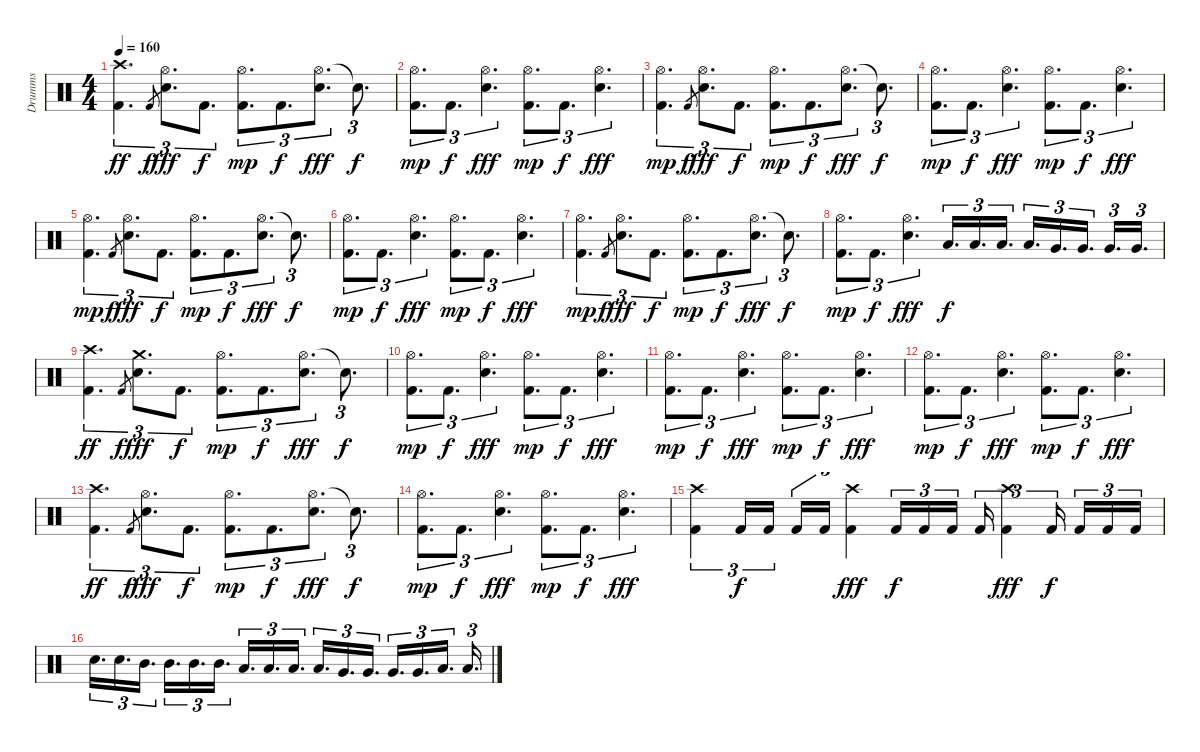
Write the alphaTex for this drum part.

\track ("Drumms" "Drumms") {instrument percussion}
\staff {score}
\articulation defaults
\ts (4 4)
\section ("" "")
\tempo 160
\clef neutral
\ks c
("Crash high (hit)" "Kick (hit) 2").4{d tu (3 2) dy ff} "Kick (hit) 2".8{gr dy f} ("Hi-Hat (open)" "Electric Snare (hit)").8{d tu (3 2) dy fff} "Kick (hit) 2".8{d tu (3 2) dy f} ("Hi-Hat (open)" "Kick (hit) 2").8{d tu (3 2) dy mp} "Kick (hit) 2".8{d tu (3 2) dy f} ("Hi-Hat (open)" "Electric Snare (hit)").8{d tu (3 2) dy fff} "Snare (hit)"{t}.8{d tu (3 2) dy f} |
("Hi-Hat (open)" "Kick (hit) 2").8{d tu (3 2) dy mp} "Kick (hit) 2".8{d tu (3 2) dy f} ("Hi-Hat (open)" "Electric Snare (hit)").4{d tu (3 2) dy fff} ("Hi-Hat (open)" "Kick (hit) 2").8{d tu (3 2) dy mp} "Kick (hit) 2".8{d tu (3 2) dy f} ("Hi-Hat (open)" "Electric Snare (hit)").4{d tu (3 2) dy fff} |
("Hi-Hat (open)" "Kick (hit) 2").4{d tu (3 2) dy mp} "Kick (hit) 2".8{gr dy f} ("Hi-Hat (open)" "Electric Snare (hit)").8{d tu (3 2) dy fff} "Kick (hit) 2".8{d tu (3 2) dy f} ("Hi-Hat (open)" "Kick (hit) 2").8{d tu (3 2) dy mp} "Kick (hit) 2".8{d tu (3 2) dy f} ("Hi-Hat (open)" "Electric Snare (hit)").8{d tu (3 2) dy fff} "Snare (hit)"{t}.8{d tu (3 2) dy f} |
("Hi-Hat (open)" "Kick (hit) 2").8{d tu (3 2) dy mp} "Kick (hit) 2".8{d tu (3 2) dy f} ("Hi-Hat (open)" "Electric Snare (hit)").4{d tu (3 2) dy fff} ("Hi-Hat (open)" "Kick (hit) 2").8{d tu (3 2) dy mp} "Kick (hit) 2".8{d tu (3 2) dy f} ("Hi-Hat (open)" "Electric Snare (hit)").4{d tu (3 2) dy fff} |
("Hi-Hat (open)" "Kick (hit) 2").4{d tu (3 2) dy mp} "Kick (hit) 2".8{gr dy f} ("Hi-Hat (open)" "Electric Snare (hit)").8{d tu (3 2) dy fff} "Kick (hit) 2".8{d tu (3 2) dy f} ("Hi-Hat (open)" "Kick (hit) 2").8{d tu (3 2) dy mp} "Kick (hit) 2".8{d tu (3 2) dy f} ("Hi-Hat (open)" "Electric Snare (hit)").8{d tu (3 2) dy fff} "Snare (hit)"{t}.8{d tu (3 2) dy f} |
("Hi-Hat (open)" "Kick (hit) 2").8{d tu (3 2) dy mp} "Kick (hit) 2".8{d tu (3 2) dy f} ("Hi-Hat (open)" "Electric Snare (hit)").4{d tu (3 2) dy fff} ("Hi-Hat (open)" "Kick (hit) 2").8{d tu (3 2) dy mp} "Kick (hit) 2".8{d tu (3 2) dy f} ("Hi-Hat (open)" "Electric Snare (hit)").4{d tu (3 2) dy fff} |
("Hi-Hat (open)" "Kick (hit) 2").4{d tu (3 2) dy mp} "Kick (hit) 2".8{gr dy f} ("Hi-Hat (open)" "Electric Snare (hit)").8{d tu (3 2) dy fff} "Kick (hit) 2".8{d tu (3 2) dy f} ("Hi-Hat (open)" "Kick (hit) 2").8{d tu (3 2) dy mp} "Kick (hit) 2".8{d tu (3 2) dy f} ("Hi-Hat (open)" "Electric Snare (hit)").8{d tu (3 2) dy fff} "Snare (hit)"{t}.8{d tu (3 2) dy f} |
("Hi-Hat (open)" "Kick (hit) 2").8{d tu (3 2) dy mp} "Kick (hit) 2".8{d tu (3 2) dy f} ("Hi-Hat (open)" "Electric Snare (hit)").4{d tu (3 2) dy fff} "Low Tom (hit)".16{d tu (3 2) dy f} "Low Tom (hit)".16{d tu (3 2)} "Low Tom (hit)".16{d tu (3 2)} "Low Tom (hit)".16{d tu (3 2)} "Very Low Tom (hit)".16{d tu (3 2)} "Very Low Tom (hit)".16{d tu (3 2)} "Very Low Tom (hit)".16{d tu (3 2)} "Very Low Tom (hit)".16{d tu (3 2)} |
("Crash high (hit)" "Kick (hit) 2").4{d tu (3 2) dy ff} "Kick (hit) 2".8{gr dy f} ("Crash medium (hit)" "Electric Snare (hit)").8{d tu (3 2) dy fff} "Kick (hit) 2".8{d tu (3 2) dy f} ("Hi-Hat (open)" "Kick (hit) 2").8{d tu (3 2) dy mp} "Kick (hit) 2".8{d tu (3 2) dy f} ("Hi-Hat (open)" "Electric Snare (hit)").8{d tu (3 2) dy fff} "Snare (hit)"{t}.8{d tu (3 2) dy f} |
("Hi-Hat (open)" "Kick (hit) 2").8{d tu (3 2) dy mp} "Kick (hit) 2".8{d tu (3 2) dy f} ("Hi-Hat (open)" "Electric Snare (hit)").4{d tu (3 2) dy fff} ("Hi-Hat (open)" "Kick (hit) 2").8{d tu (3 2) dy mp} "Kick (hit) 2".8{d tu (3 2) dy f} ("Hi-Hat (open)" "Electric Snare (hit)").4{d tu (3 2) dy fff} |
("Hi-Hat (open)" "Kick (hit) 2").8{d tu (3 2) dy mp} "Kick (hit) 2".8{d tu (3 2) dy f} ("Hi-Hat (open)" "Electric Snare (hit)").4{d tu (3 2) dy fff} ("Hi-Hat (open)" "Kick (hit) 2").8{d tu (3 2) dy mp} "Kick (hit) 2".8{d tu (3 2) dy f} ("Hi-Hat (open)" "Electric Snare (hit)").4{d tu (3 2) dy fff} |
("Hi-Hat (open)" "Kick (hit) 2").8{d tu (3 2) dy mp} "Kick (hit) 2".8{d tu (3 2) dy f} ("Hi-Hat (open)" "Electric Snare (hit)").4{d tu (3 2) dy fff} ("Hi-Hat (open)" "Kick (hit) 2").8{d tu (3 2) dy mp} "Kick (hit) 2".8{d tu (3 2) dy f} ("Hi-Hat (open)" "Electric Snare (hit)").4{d tu (3 2) dy fff} |
("Crash high (hit)" "Kick (hit) 2").4{d tu (3 2) dy ff} "Kick (hit) 2".8{gr dy f} ("Hi-Hat (open)" "Electric Snare (hit)").8{d tu (3 2) dy fff} "Kick (hit) 2".8{d tu (3 2) dy f} ("Hi-Hat (open)" "Kick (hit) 2").8{d tu (3 2) dy mp} "Kick (hit) 2".8{d tu (3 2) dy f} ("Hi-Hat (open)" "Electric Snare (hit)").8{d tu (3 2) dy fff} "Snare (hit)"{t}.8{d tu (3 2) dy f} |
("Hi-Hat (open)" "Kick (hit) 2").8{d tu (3 2) dy mp} "Kick (hit) 2".8{d tu (3 2) dy f} ("Hi-Hat (open)" "Electric Snare (hit)").4{d tu (3 2) dy fff} ("Hi-Hat (open)" "Kick (hit) 2").8{d tu (3 2) dy mp} "Kick (hit) 2".8{d tu (3 2) dy f} ("Hi-Hat (open)" "Electric Snare (hit)").4{d tu (3 2) dy fff} |
("Crash high (hit)" "Kick (hit) 2").4{tu (3 2)} "Kick (hit) 2".16{tu (3 2) dy f} "Kick (hit) 2".16{tu (3 2)} "Kick (hit) 2".16{tu (3 2)} "Kick (hit) 2".16{tu (3 2)} ("Crash high (hit)" "Kick (hit) 2").4{tu (3 2) dy fff} "Kick (hit) 2".16{tu (3 2) dy f} "Kick (hit) 2".16{tu (3 2)} "Kick (hit) 2".16{tu (3 2)} "Kick (hit) 2".16{tu (3 2)} ("Crash high (hit)" "Kick (hit) 2").4{tu (3 2) dy fff} "Kick (hit) 2".16{tu (3 2) dy f} "Kick (hit) 2".16{tu (3 2)} "Kick (hit) 2".16{tu (3 2)} "Kick (hit) 2".16{tu (3 2)} |
"Electric Snare (hit)".16{d tu (3 2)} "Electric Snare (hit)".16{d tu (3 2)} "Mid Tom (hit)".16{d tu (3 2)} "Mid Tom (hit)".16{d tu (3 2)} "Mid Tom (hit)".16{d tu (3 2)} "Mid Tom (hit)".16{d tu (3 2)} "Low Tom (hit)".16{d tu (3 2)} "Low Tom (hit)".16{d tu (3 2)} "Low Tom (hit)".16{d tu (3 2)} "Low Tom (hit)".16{d tu (3 2)} "Very Low Tom (hit)".16{d tu (3 2)} "Very Low Tom (hit)".16{d tu (3 2)} "Very Low Tom (hit)".16{d tu (3 2)} "Very Low Tom (hit)".16{d tu (3 2)} "Low Floor Tom (hit)".16{d tu (3 2)} "Low Floor Tom (hit)".16{d tu (3 2)}
